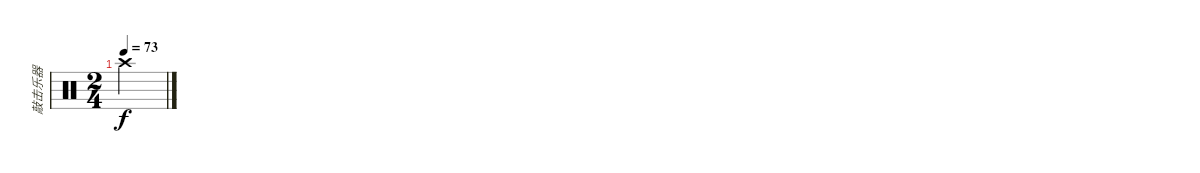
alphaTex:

\track ("敲击乐器" "敲击乐器") {instrument percussion}
\staff {score}
\articulation defaults
\ts (2 4)
\tempo 73
\clef neutral
\ks c "Crash high (hit)".2{dy f}
